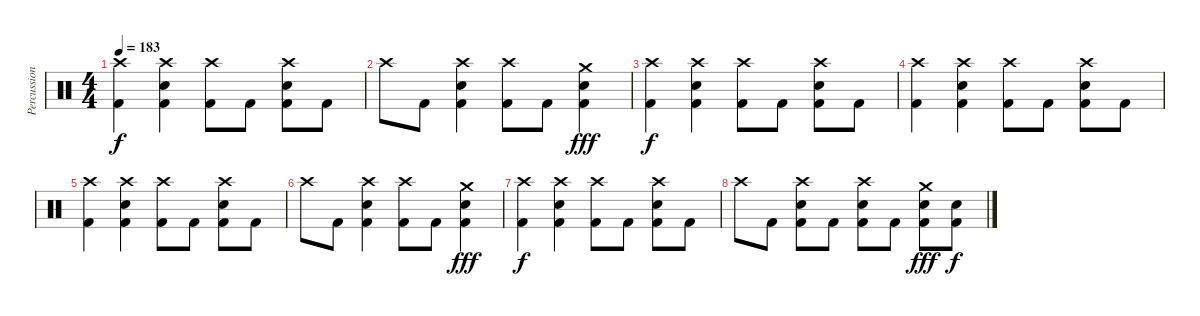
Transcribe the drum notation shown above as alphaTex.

\track ("Percussion" "Percussion") {instrument percussion}
\staff {score}
\articulation defaults
\ts (4 4)
\tempo 183
\clef neutral
\ks aminor
("Crash high (hit)" "Kick (hit) 2").4{dy f} ("Crash high (hit)" "Electric Snare (hit)" "Kick (hit) 2").4 ("Crash high (hit)" "Kick (hit) 2").8 "Kick (hit) 2".8 ("Crash high (hit)" "Electric Snare (hit)" "Kick (hit) 2").8 "Kick (hit) 2".8 |
"Crash high (hit)".8 "Kick (hit) 2".8 ("Crash high (hit)" "Electric Snare (hit)" "Kick (hit) 2").4 ("Crash high (hit)" "Kick (hit) 2").8 "Kick (hit) 2".8 ("Crash medium (hit)" "Electric Snare (hit)" "Kick (hit) 2").4{dy fff} |
("Crash high (hit)" "Kick (hit) 2").4{dy f} ("Crash high (hit)" "Electric Snare (hit)" "Kick (hit) 2").4 ("Crash high (hit)" "Kick (hit) 2").8 "Kick (hit) 2".8 ("Crash high (hit)" "Electric Snare (hit)" "Kick (hit) 2").8 "Kick (hit) 2".8 |
("Crash high (hit)" "Kick (hit) 2").4 ("Crash high (hit)" "Electric Snare (hit)" "Kick (hit) 2").4 ("Crash high (hit)" "Kick (hit) 2").8 "Kick (hit) 2".8 ("Crash high (hit)" "Electric Snare (hit)" "Kick (hit) 2").8 "Kick (hit) 2".8 |
("Crash high (hit)" "Kick (hit) 2").4 ("Crash high (hit)" "Electric Snare (hit)" "Kick (hit) 2").4 ("Crash high (hit)" "Kick (hit) 2").8 "Kick (hit) 2".8 ("Crash high (hit)" "Electric Snare (hit)" "Kick (hit) 2").8 "Kick (hit) 2".8 |
"Crash high (hit)".8 "Kick (hit) 2".8 ("Crash high (hit)" "Electric Snare (hit)" "Kick (hit) 2").4 ("Crash high (hit)" "Kick (hit) 2").8 "Kick (hit) 2".8 ("Crash medium (hit)" "Electric Snare (hit)" "Kick (hit) 2").4{dy fff} |
("Crash high (hit)" "Kick (hit) 2").4{dy f} ("Crash high (hit)" "Electric Snare (hit)" "Kick (hit) 2").4 ("Crash high (hit)" "Kick (hit) 2").8 "Kick (hit) 2".8 ("Crash high (hit)" "Electric Snare (hit)" "Kick (hit) 2").8 "Kick (hit) 2".8 |
"Crash high (hit)".8 "Kick (hit) 2".8 ("Crash high (hit)" "Electric Snare (hit)" "Kick (hit) 2").8 "Kick (hit) 2".8 ("Crash high (hit)" "Electric Snare (hit)" "Kick (hit) 2").8 "Kick (hit) 2".8 ("Crash medium (hit)" "Electric Snare (hit)" "Kick (hit) 2").8{dy fff} ("Electric Snare (hit)" "Kick (hit) 2").8{dy f}
